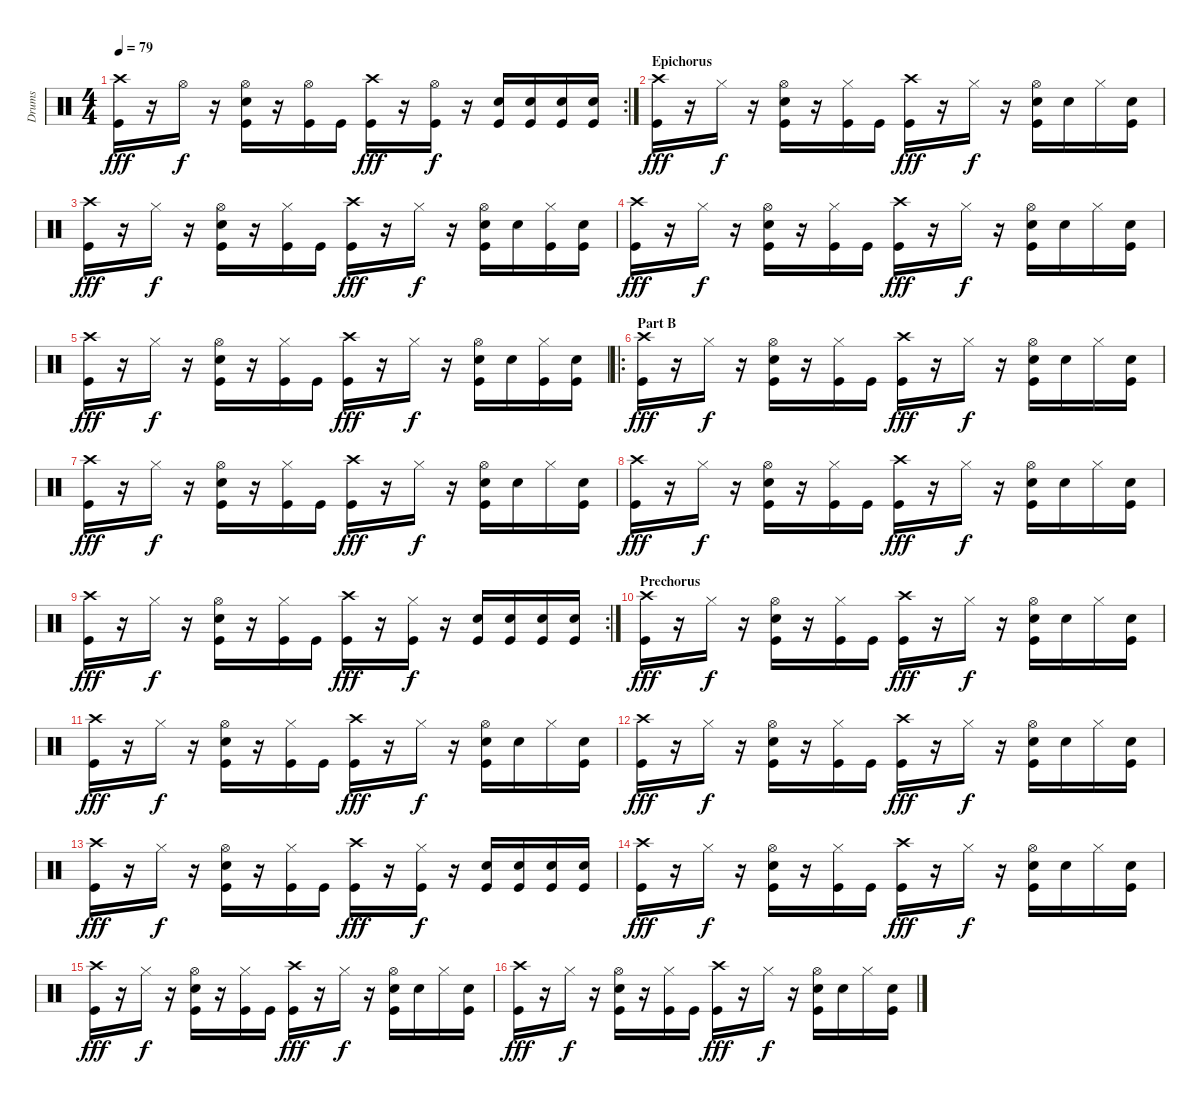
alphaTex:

\track ("Drums" "Drums") {instrument percussion}
\staff {score}
\articulation defaults
\rc 2
\ts (4 4)
\tempo 79
\clef neutral
\ks c
("Crash high (hit)" "Kick (hit)").16{dy fff} r.16 "Hi-Hat (open)".16{dy f} r.16 ("Hi-Hat (open)" "Electric Snare (hit)" "Kick (hit)").16 r.16 ("Hi-Hat (open)" "Kick (hit)").16 "Kick (hit)".16 ("Crash high (hit)" "Kick (hit)").16{dy fff} r.16 ("Hi-Hat (open)" "Kick (hit)").16{dy f} r.16 ("Electric Snare (hit)" "Kick (hit)").16 ("Electric Snare (hit)" "Kick (hit)").16 ("Electric Snare (hit)" "Kick (hit)").16 ("Electric Snare (hit)" "Kick (hit)").16 |
\section ("" "Epichorus")
("Crash high (hit)" "Kick (hit)").16{dy fff volume 11} r.16 "Hi-Hat (closed)".16{dy f} r.16 ("Hi-Hat (open)" "Electric Snare (hit)" "Kick (hit)").16 r.16 ("Hi-Hat (closed)" "Kick (hit)").16 "Kick (hit)".16 ("Crash high (hit)" "Kick (hit)").16{dy fff} r.16 "Hi-Hat (closed)".16{dy f} r.16 ("Hi-Hat (open)" "Electric Snare (hit)" "Kick (hit)").16 "Electric Snare (hit)".16 "Hi-Hat (closed)".16 ("Electric Snare (hit)" "Kick (hit)").16 |
("Crash high (hit)" "Kick (hit)").16{dy fff} r.16 "Hi-Hat (closed)".16{dy f} r.16 ("Hi-Hat (open)" "Electric Snare (hit)" "Kick (hit)").16 r.16 ("Hi-Hat (closed)" "Kick (hit)").16 "Kick (hit)".16 ("Crash high (hit)" "Kick (hit)").16{dy fff} r.16 "Hi-Hat (closed)".16{dy f} r.16 ("Hi-Hat (open)" "Electric Snare (hit)" "Kick (hit)").16 "Electric Snare (hit)".16 ("Hi-Hat (closed)" "Kick (hit)").16 ("Electric Snare (hit)" "Kick (hit)").16 |
("Crash high (hit)" "Kick (hit)").16{dy fff volume 11} r.16 "Hi-Hat (closed)".16{dy f} r.16 ("Hi-Hat (open)" "Electric Snare (hit)" "Kick (hit)").16 r.16 ("Hi-Hat (closed)" "Kick (hit)").16 "Kick (hit)".16 ("Crash high (hit)" "Kick (hit)").16{dy fff} r.16 "Hi-Hat (closed)".16{dy f} r.16 ("Hi-Hat (open)" "Electric Snare (hit)" "Kick (hit)").16 "Electric Snare (hit)".16 "Hi-Hat (closed)".16 ("Electric Snare (hit)" "Kick (hit)").16 |
("Crash high (hit)" "Kick (hit)").16{dy fff} r.16 "Hi-Hat (closed)".16{dy f} r.16 ("Hi-Hat (open)" "Electric Snare (hit)" "Kick (hit)").16 r.16 ("Hi-Hat (closed)" "Kick (hit)").16 "Kick (hit)".16 ("Crash high (hit)" "Kick (hit)").16{dy fff} r.16 "Hi-Hat (closed)".16{dy f} r.16 ("Hi-Hat (open)" "Electric Snare (hit)" "Kick (hit)").16 "Electric Snare (hit)".16 ("Hi-Hat (closed)" "Kick (hit)").16 ("Electric Snare (hit)" "Kick (hit)").16 |
\ro
\section ("" "Part B")
("Crash high (hit)" "Kick (hit)").16{dy fff volume 11} r.16 "Hi-Hat (closed)".16{dy f} r.16 ("Hi-Hat (open)" "Electric Snare (hit)" "Kick (hit)").16 r.16 ("Hi-Hat (closed)" "Kick (hit)").16 "Kick (hit)".16 ("Crash high (hit)" "Kick (hit)").16{dy fff} r.16 "Hi-Hat (closed)".16{dy f} r.16 ("Hi-Hat (open)" "Electric Snare (hit)" "Kick (hit)").16 "Electric Snare (hit)".16 "Hi-Hat (closed)".16 ("Electric Snare (hit)" "Kick (hit)").16 |
("Crash high (hit)" "Kick (hit)").16{dy fff volume 11} r.16 "Hi-Hat (closed)".16{dy f} r.16 ("Hi-Hat (open)" "Electric Snare (hit)" "Kick (hit)").16 r.16 ("Hi-Hat (closed)" "Kick (hit)").16 "Kick (hit)".16 ("Crash high (hit)" "Kick (hit)").16{dy fff} r.16 "Hi-Hat (closed)".16{dy f} r.16 ("Hi-Hat (open)" "Electric Snare (hit)" "Kick (hit)").16 "Electric Snare (hit)".16 "Hi-Hat (closed)".16 ("Electric Snare (hit)" "Kick (hit)").16 |
("Crash high (hit)" "Kick (hit)").16{dy fff volume 11} r.16 "Hi-Hat (closed)".16{dy f} r.16 ("Hi-Hat (open)" "Electric Snare (hit)" "Kick (hit)").16 r.16 ("Hi-Hat (closed)" "Kick (hit)").16 "Kick (hit)".16 ("Crash high (hit)" "Kick (hit)").16{dy fff} r.16 "Hi-Hat (closed)".16{dy f} r.16 ("Hi-Hat (open)" "Electric Snare (hit)" "Kick (hit)").16 "Electric Snare (hit)".16 "Hi-Hat (closed)".16 ("Electric Snare (hit)" "Kick (hit)").16 |
\rc 2
("Crash high (hit)" "Kick (hit)").16{dy fff} r.16 "Hi-Hat (closed)".16{dy f} r.16 ("Hi-Hat (open)" "Electric Snare (hit)" "Kick (hit)").16 r.16 ("Hi-Hat (closed)" "Kick (hit)").16 "Kick (hit)".16 ("Crash high (hit)" "Kick (hit)").16{dy fff} r.16 ("Hi-Hat (closed)" "Kick (hit)").16{dy f} r.16 ("Electric Snare (hit)" "Kick (hit)").16 ("Electric Snare (hit)" "Kick (hit)").16 ("Electric Snare (hit)" "Kick (hit)").16 ("Electric Snare (hit)" "Kick (hit)").16 |
\section ("" "Prechorus")
("Crash high (hit)" "Kick (hit)").16{dy fff volume 11} r.16 "Hi-Hat (closed)".16{dy f} r.16 ("Hi-Hat (open)" "Electric Snare (hit)" "Kick (hit)").16 r.16 ("Hi-Hat (closed)" "Kick (hit)").16 "Kick (hit)".16 ("Crash high (hit)" "Kick (hit)").16{dy fff} r.16 "Hi-Hat (closed)".16{dy f} r.16 ("Hi-Hat (open)" "Electric Snare (hit)" "Kick (hit)").16 "Electric Snare (hit)".16 "Hi-Hat (closed)".16 ("Electric Snare (hit)" "Kick (hit)").16 |
("Crash high (hit)" "Kick (hit)").16{dy fff volume 11} r.16 "Hi-Hat (closed)".16{dy f} r.16 ("Hi-Hat (open)" "Electric Snare (hit)" "Kick (hit)").16 r.16 ("Hi-Hat (closed)" "Kick (hit)").16 "Kick (hit)".16 ("Crash high (hit)" "Kick (hit)").16{dy fff} r.16 "Hi-Hat (closed)".16{dy f} r.16 ("Hi-Hat (open)" "Electric Snare (hit)" "Kick (hit)").16 "Electric Snare (hit)".16 "Hi-Hat (closed)".16 ("Electric Snare (hit)" "Kick (hit)").16 |
("Crash high (hit)" "Kick (hit)").16{dy fff volume 11} r.16 "Hi-Hat (closed)".16{dy f} r.16 ("Hi-Hat (open)" "Electric Snare (hit)" "Kick (hit)").16 r.16 ("Hi-Hat (closed)" "Kick (hit)").16 "Kick (hit)".16 ("Crash high (hit)" "Kick (hit)").16{dy fff} r.16 "Hi-Hat (closed)".16{dy f} r.16 ("Hi-Hat (open)" "Electric Snare (hit)" "Kick (hit)").16 "Electric Snare (hit)".16 "Hi-Hat (closed)".16 ("Electric Snare (hit)" "Kick (hit)").16 |
("Crash high (hit)" "Kick (hit)").16{dy fff} r.16 "Hi-Hat (closed)".16{dy f} r.16 ("Hi-Hat (open)" "Electric Snare (hit)" "Kick (hit)").16 r.16 ("Hi-Hat (closed)" "Kick (hit)").16 "Kick (hit)".16 ("Crash high (hit)" "Kick (hit)").16{dy fff} r.16 ("Hi-Hat (closed)" "Kick (hit)").16{dy f} r.16 ("Electric Snare (hit)" "Kick (hit)").16 ("Electric Snare (hit)" "Kick (hit)").16 ("Electric Snare (hit)" "Kick (hit)").16 ("Electric Snare (hit)" "Kick (hit)").16 |
("Crash high (hit)" "Kick (hit)").16{dy fff volume 11} r.16 "Hi-Hat (closed)".16{dy f} r.16 ("Hi-Hat (open)" "Electric Snare (hit)" "Kick (hit)").16 r.16 ("Hi-Hat (closed)" "Kick (hit)").16 "Kick (hit)".16 ("Crash high (hit)" "Kick (hit)").16{dy fff} r.16 "Hi-Hat (closed)".16{dy f} r.16 ("Hi-Hat (open)" "Electric Snare (hit)" "Kick (hit)").16 "Electric Snare (hit)".16 "Hi-Hat (closed)".16 ("Electric Snare (hit)" "Kick (hit)").16 |
("Crash high (hit)" "Kick (hit)").16{dy fff volume 11} r.16 "Hi-Hat (closed)".16{dy f} r.16 ("Hi-Hat (open)" "Electric Snare (hit)" "Kick (hit)").16 r.16 ("Hi-Hat (closed)" "Kick (hit)").16 "Kick (hit)".16 ("Crash high (hit)" "Kick (hit)").16{dy fff} r.16 "Hi-Hat (closed)".16{dy f} r.16 ("Hi-Hat (open)" "Electric Snare (hit)" "Kick (hit)").16 "Electric Snare (hit)".16 "Hi-Hat (closed)".16 ("Electric Snare (hit)" "Kick (hit)").16 |
("Crash high (hit)" "Kick (hit)").16{dy fff volume 11} r.16 "Hi-Hat (closed)".16{dy f} r.16 ("Hi-Hat (open)" "Electric Snare (hit)" "Kick (hit)").16 r.16 ("Hi-Hat (closed)" "Kick (hit)").16 "Kick (hit)".16 ("Crash high (hit)" "Kick (hit)").16{dy fff} r.16 "Hi-Hat (closed)".16{dy f} r.16 ("Hi-Hat (open)" "Electric Snare (hit)" "Kick (hit)").16 "Electric Snare (hit)".16 "Hi-Hat (closed)".16 ("Electric Snare (hit)" "Kick (hit)").16
